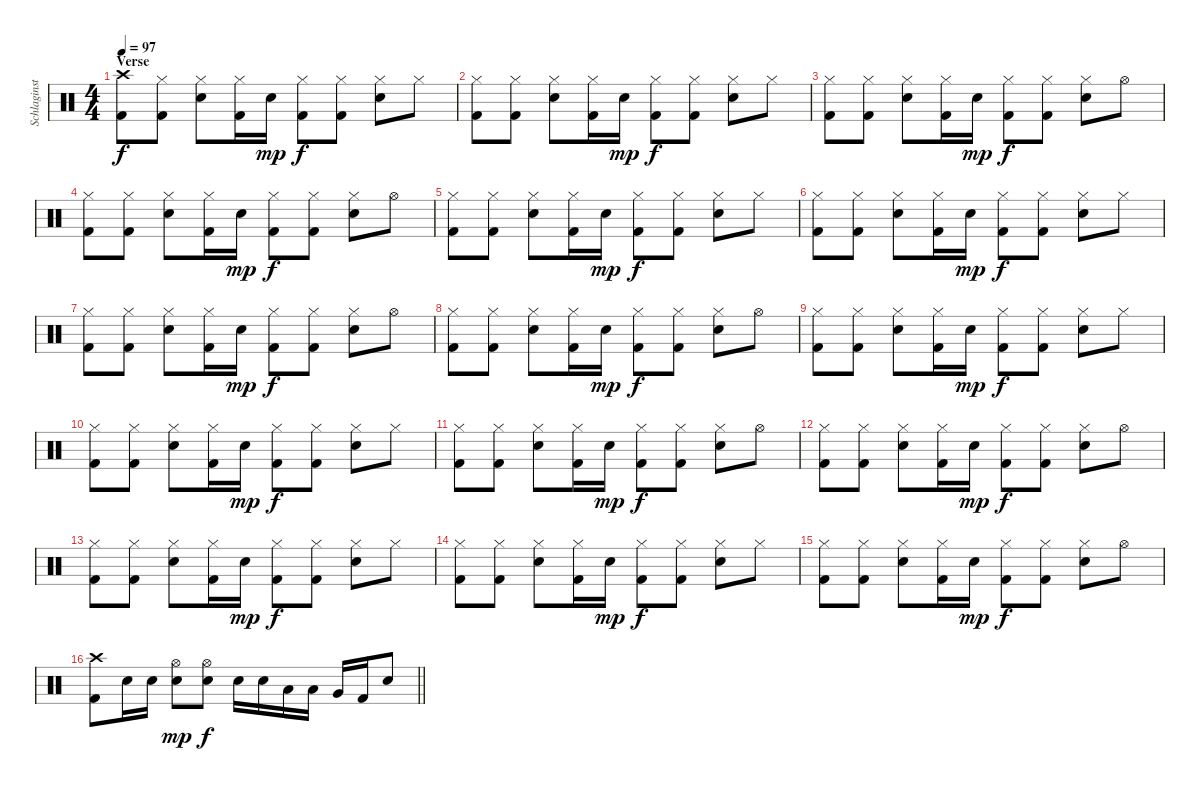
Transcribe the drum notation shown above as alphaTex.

\track ("Schlaginstrumente - Auswahl" "Schlaginst") {instrument percussion}
\staff {score}
\articulation defaults
\ts (4 4)
\section ("" "Verse")
\tempo 97
\clef neutral
\ks c
("Crash high (hit)" "Kick (hit) 2").8{dy f} ("Hi-Hat (closed)" "Kick (hit) 2").8 ("Hi-Hat (closed)" "Electric Snare (hit)").8 ("Hi-Hat (closed)" "Kick (hit) 2").16 "Electric Snare (hit)".16{dy mp} ("Hi-Hat (closed)" "Kick (hit) 2").8{dy f} ("Hi-Hat (closed)" "Kick (hit) 2").8 ("Hi-Hat (closed)" "Electric Snare (hit)").8 "Hi-Hat (closed)".8 |
("Hi-Hat (closed)" "Kick (hit) 2").8 ("Hi-Hat (closed)" "Kick (hit) 2").8 ("Hi-Hat (closed)" "Electric Snare (hit)").8 ("Hi-Hat (closed)" "Kick (hit) 2").16 "Electric Snare (hit)".16{dy mp} ("Hi-Hat (closed)" "Kick (hit) 2").8{dy f} ("Hi-Hat (closed)" "Kick (hit) 2").8 ("Hi-Hat (closed)" "Electric Snare (hit)").8 "Hi-Hat (closed)".8 |
("Hi-Hat (closed)" "Kick (hit) 2").8 ("Hi-Hat (closed)" "Kick (hit) 2").8 ("Hi-Hat (closed)" "Electric Snare (hit)").8 ("Hi-Hat (closed)" "Kick (hit) 2").16 "Electric Snare (hit)".16{dy mp} ("Hi-Hat (closed)" "Kick (hit) 2").8{dy f} ("Hi-Hat (closed)" "Kick (hit) 2").8 ("Hi-Hat (closed)" "Electric Snare (hit)").8 "Hi-Hat (open)".8 |
("Hi-Hat (closed)" "Kick (hit) 2").8 ("Hi-Hat (closed)" "Kick (hit) 2").8 ("Hi-Hat (closed)" "Electric Snare (hit)").8 ("Hi-Hat (closed)" "Kick (hit) 2").16 "Electric Snare (hit)".16{dy mp} ("Hi-Hat (closed)" "Kick (hit) 2").8{dy f} ("Hi-Hat (closed)" "Kick (hit) 2").8 ("Hi-Hat (closed)" "Electric Snare (hit)").8 "Hi-Hat (open)".8 |
("Hi-Hat (closed)" "Kick (hit) 2").8 ("Hi-Hat (closed)" "Kick (hit) 2").8 ("Hi-Hat (closed)" "Electric Snare (hit)").8 ("Hi-Hat (closed)" "Kick (hit) 2").16 "Electric Snare (hit)".16{dy mp} ("Hi-Hat (closed)" "Kick (hit) 2").8{dy f} ("Hi-Hat (closed)" "Kick (hit) 2").8 ("Hi-Hat (closed)" "Electric Snare (hit)").8 "Hi-Hat (closed)".8 |
("Hi-Hat (closed)" "Kick (hit) 2").8 ("Hi-Hat (closed)" "Kick (hit) 2").8 ("Hi-Hat (closed)" "Electric Snare (hit)").8 ("Hi-Hat (closed)" "Kick (hit) 2").16 "Electric Snare (hit)".16{dy mp} ("Hi-Hat (closed)" "Kick (hit) 2").8{dy f} ("Hi-Hat (closed)" "Kick (hit) 2").8 ("Hi-Hat (closed)" "Electric Snare (hit)").8 "Hi-Hat (closed)".8 |
("Hi-Hat (closed)" "Kick (hit) 2").8 ("Hi-Hat (closed)" "Kick (hit) 2").8 ("Hi-Hat (closed)" "Electric Snare (hit)").8 ("Hi-Hat (closed)" "Kick (hit) 2").16 "Electric Snare (hit)".16{dy mp} ("Hi-Hat (closed)" "Kick (hit) 2").8{dy f} ("Hi-Hat (closed)" "Kick (hit) 2").8 ("Hi-Hat (closed)" "Electric Snare (hit)").8 "Hi-Hat (open)".8 |
("Hi-Hat (closed)" "Kick (hit) 2").8 ("Hi-Hat (closed)" "Kick (hit) 2").8 ("Hi-Hat (closed)" "Electric Snare (hit)").8 ("Hi-Hat (closed)" "Kick (hit) 2").16 "Electric Snare (hit)".16{dy mp} ("Hi-Hat (closed)" "Kick (hit) 2").8{dy f} ("Hi-Hat (closed)" "Kick (hit) 2").8 ("Hi-Hat (closed)" "Electric Snare (hit)").8 "Hi-Hat (open)".8 |
("Hi-Hat (closed)" "Kick (hit) 2").8 ("Hi-Hat (closed)" "Kick (hit) 2").8 ("Hi-Hat (closed)" "Electric Snare (hit)").8 ("Hi-Hat (closed)" "Kick (hit) 2").16 "Electric Snare (hit)".16{dy mp} ("Hi-Hat (closed)" "Kick (hit) 2").8{dy f} ("Hi-Hat (closed)" "Kick (hit) 2").8 ("Hi-Hat (closed)" "Electric Snare (hit)").8 "Hi-Hat (closed)".8 |
("Hi-Hat (closed)" "Kick (hit) 2").8 ("Hi-Hat (closed)" "Kick (hit) 2").8 ("Hi-Hat (closed)" "Electric Snare (hit)").8 ("Hi-Hat (closed)" "Kick (hit) 2").16 "Electric Snare (hit)".16{dy mp} ("Hi-Hat (closed)" "Kick (hit) 2").8{dy f} ("Hi-Hat (closed)" "Kick (hit) 2").8 ("Hi-Hat (closed)" "Electric Snare (hit)").8 "Hi-Hat (closed)".8 |
("Hi-Hat (closed)" "Kick (hit) 2").8 ("Hi-Hat (closed)" "Kick (hit) 2").8 ("Hi-Hat (closed)" "Electric Snare (hit)").8 ("Hi-Hat (closed)" "Kick (hit) 2").16 "Electric Snare (hit)".16{dy mp} ("Hi-Hat (closed)" "Kick (hit) 2").8{dy f} ("Hi-Hat (closed)" "Kick (hit) 2").8 ("Hi-Hat (closed)" "Electric Snare (hit)").8 "Hi-Hat (open)".8 |
("Hi-Hat (closed)" "Kick (hit) 2").8 ("Hi-Hat (closed)" "Kick (hit) 2").8 ("Hi-Hat (closed)" "Electric Snare (hit)").8 ("Hi-Hat (closed)" "Kick (hit) 2").16 "Electric Snare (hit)".16{dy mp} ("Hi-Hat (closed)" "Kick (hit) 2").8{dy f} ("Hi-Hat (closed)" "Kick (hit) 2").8 ("Hi-Hat (closed)" "Electric Snare (hit)").8 "Hi-Hat (open)".8 |
("Hi-Hat (closed)" "Kick (hit) 2").8 ("Hi-Hat (closed)" "Kick (hit) 2").8 ("Hi-Hat (closed)" "Electric Snare (hit)").8 ("Hi-Hat (closed)" "Kick (hit) 2").16 "Electric Snare (hit)".16{dy mp} ("Hi-Hat (closed)" "Kick (hit) 2").8{dy f} ("Hi-Hat (closed)" "Kick (hit) 2").8 ("Hi-Hat (closed)" "Electric Snare (hit)").8 "Hi-Hat (closed)".8 |
("Hi-Hat (closed)" "Kick (hit) 2").8 ("Hi-Hat (closed)" "Kick (hit) 2").8 ("Hi-Hat (closed)" "Electric Snare (hit)").8 ("Hi-Hat (closed)" "Kick (hit) 2").16 "Electric Snare (hit)".16{dy mp} ("Hi-Hat (closed)" "Kick (hit) 2").8{dy f} ("Hi-Hat (closed)" "Kick (hit) 2").8 ("Hi-Hat (closed)" "Electric Snare (hit)").8 "Hi-Hat (closed)".8 |
("Hi-Hat (closed)" "Kick (hit) 2").8 ("Hi-Hat (closed)" "Kick (hit) 2").8 ("Hi-Hat (closed)" "Electric Snare (hit)").8 ("Hi-Hat (closed)" "Kick (hit) 2").16 "Electric Snare (hit)".16{dy mp} ("Hi-Hat (closed)" "Kick (hit) 2").8{dy f} ("Hi-Hat (closed)" "Kick (hit) 2").8 ("Hi-Hat (closed)" "Electric Snare (hit)").8 "Hi-Hat (open)".8 |
\barLineRight lightlight
("Crash high (hit)" "Kick (hit) 2").8 "Electric Snare (hit)".16 "Electric Snare (hit)".16 ("Hi-Hat (open)" "Electric Snare (hit)").8{dy mp} ("Hi-Hat (open)" "Electric Snare (hit)").8{dy f} "Electric Snare (hit)".16 "Electric Snare (hit)".16 "Low Tom (hit)".16 "Low Tom (hit)".16 "Very Low Tom (hit)".16 "Kick (hit) 2".16 "Electric Snare (hit)".8
